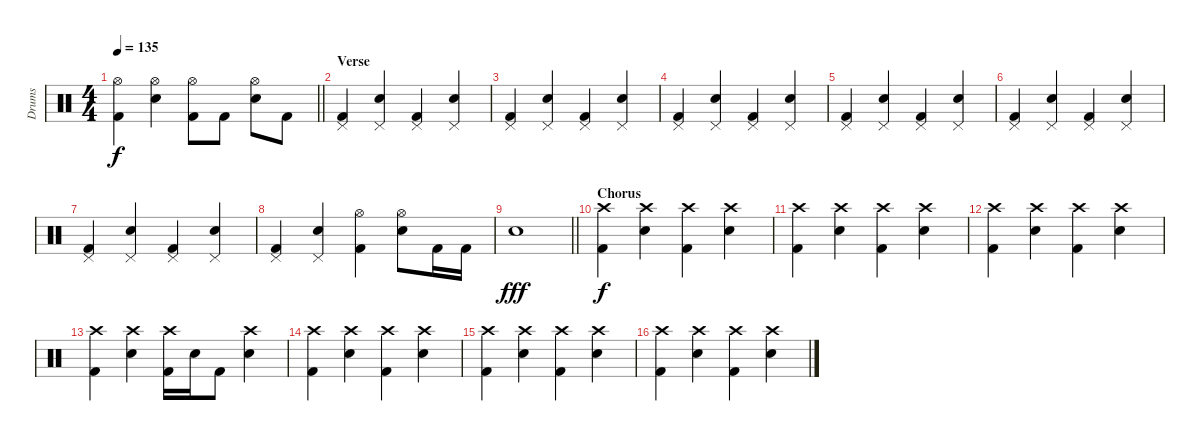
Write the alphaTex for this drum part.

\track ("Drums" "Drums") {instrument percussion}
\staff {score}
\articulation defaults
\ts (4 4)
\tempo 135
\clef neutral
\barLineRight lightlight
\ks c
("Hi-Hat (open)" "Kick (hit) 2").4{dy f} ("Hi-Hat (open)" "Electric Snare (hit)").4 ("Hi-Hat (open)" "Kick (hit) 2").8 "Kick (hit) 2".8 ("Hi-Hat (open)" "Electric Snare (hit)").8 "Kick (hit) 2".8 |
\section ("" "Verse")
("Pedal Hi-Hat (hit)" "Kick (hit) 2").4 ("Pedal Hi-Hat (hit)" "Electric Snare (hit)").4 ("Pedal Hi-Hat (hit)" "Kick (hit) 2").4 ("Pedal Hi-Hat (hit)" "Electric Snare (hit)").4 |
("Pedal Hi-Hat (hit)" "Kick (hit) 2").4 ("Pedal Hi-Hat (hit)" "Electric Snare (hit)").4 ("Pedal Hi-Hat (hit)" "Kick (hit) 2").4 ("Pedal Hi-Hat (hit)" "Electric Snare (hit)").4 |
("Pedal Hi-Hat (hit)" "Kick (hit) 2").4 ("Pedal Hi-Hat (hit)" "Electric Snare (hit)").4 ("Pedal Hi-Hat (hit)" "Kick (hit) 2").4 ("Pedal Hi-Hat (hit)" "Electric Snare (hit)").4 |
("Pedal Hi-Hat (hit)" "Kick (hit) 2").4 ("Pedal Hi-Hat (hit)" "Electric Snare (hit)").4 ("Pedal Hi-Hat (hit)" "Kick (hit) 2").4 ("Pedal Hi-Hat (hit)" "Electric Snare (hit)").4 |
("Pedal Hi-Hat (hit)" "Kick (hit) 2").4 ("Pedal Hi-Hat (hit)" "Electric Snare (hit)").4 ("Pedal Hi-Hat (hit)" "Kick (hit) 2").4 ("Pedal Hi-Hat (hit)" "Electric Snare (hit)").4 |
("Pedal Hi-Hat (hit)" "Kick (hit) 2").4 ("Pedal Hi-Hat (hit)" "Electric Snare (hit)").4 ("Pedal Hi-Hat (hit)" "Kick (hit) 2").4 ("Pedal Hi-Hat (hit)" "Electric Snare (hit)").4 |
("Pedal Hi-Hat (hit)" "Kick (hit) 2").4 ("Pedal Hi-Hat (hit)" "Electric Snare (hit)").4 ("Hi-Hat (open)" "Kick (hit) 2").4 ("Hi-Hat (open)" "Electric Snare (hit)").8 "Kick (hit) 2".16 "Kick (hit) 2".16 |
\barLineRight lightlight "Electric Snare (hit)".1{dy fff}
|
\section ("" "Chorus")
("Crash high (hit)" "Kick (hit) 2").4{dy f} ("Crash high (hit)" "Electric Snare (hit)").4 ("Crash high (hit)" "Kick (hit) 2").4 ("Crash high (hit)" "Electric Snare (hit)").4 |
("Crash high (hit)" "Kick (hit) 2").4 ("Crash high (hit)" "Electric Snare (hit)").4 ("Crash high (hit)" "Kick (hit) 2").4 ("Crash high (hit)" "Electric Snare (hit)").4 |
("Crash high (hit)" "Kick (hit) 2").4 ("Crash high (hit)" "Electric Snare (hit)").4 ("Crash high (hit)" "Kick (hit) 2").4 ("Crash high (hit)" "Electric Snare (hit)").4 |
("Crash high (hit)" "Kick (hit) 2").4 ("Crash high (hit)" "Electric Snare (hit)").4 ("Crash high (hit)" "Kick (hit) 2").16 "Electric Snare (hit)".16 "Kick (hit) 2".8 ("Crash high (hit)" "Electric Snare (hit)").4 |
("Crash high (hit)" "Kick (hit) 2").4 ("Crash high (hit)" "Electric Snare (hit)").4 ("Crash high (hit)" "Kick (hit) 2").4 ("Crash high (hit)" "Electric Snare (hit)").4 |
("Crash high (hit)" "Kick (hit) 2").4 ("Crash high (hit)" "Electric Snare (hit)").4 ("Crash high (hit)" "Kick (hit) 2").4 ("Crash high (hit)" "Electric Snare (hit)").4 |
("Crash high (hit)" "Kick (hit) 2").4 ("Crash high (hit)" "Electric Snare (hit)").4 ("Crash high (hit)" "Kick (hit) 2").4 ("Crash high (hit)" "Electric Snare (hit)").4
